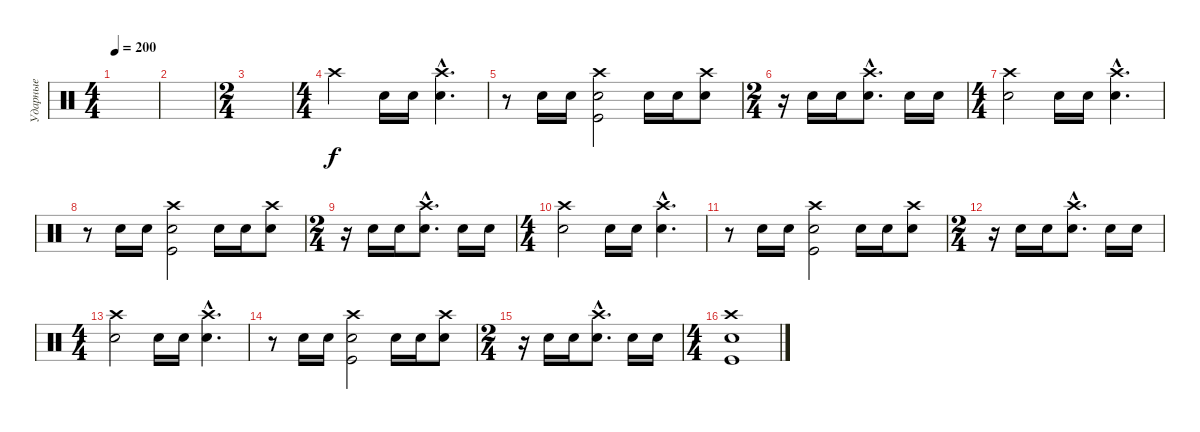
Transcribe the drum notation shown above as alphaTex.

\track ("Ударные" "Ударные") {instrument percussion}
\staff {score}
\articulation defaults
\ts (4 4)
\tempo 200
\clef neutral
\ks c
|
|
\ts (2 4)
|
\ts (4 4)
"Crash high (hit)".2 "Electric Snare (hit)".16 "Electric Snare (hit)".16 ("Crash high (hit)"{hac} "Electric Snare (hit)"{hac}).4{d} |
r.8 "Electric Snare (hit)".16 "Electric Snare (hit)".16 ("Crash high (hit)" "Electric Snare (hit)" "Kick (hit)").2 "Electric Snare (hit)".16 "Electric Snare (hit)".16 ("Crash high (hit)" "Electric Snare (hit)").8 |
\ts (2 4)
r.16 "Electric Snare (hit)".16 "Electric Snare (hit)".16 ("Crash high (hit)"{hac} "Electric Snare (hit)"{hac}).8{d} "Electric Snare (hit)".16 "Electric Snare (hit)".16 |
\ts (4 4)
("Crash high (hit)" "Electric Snare (hit)").2 "Electric Snare (hit)".16 "Electric Snare (hit)".16 ("Crash high (hit)"{hac} "Electric Snare (hit)"{hac}).4{d} |
r.8 "Electric Snare (hit)".16 "Electric Snare (hit)".16 ("Crash high (hit)" "Electric Snare (hit)" "Kick (hit)").2 "Electric Snare (hit)".16 "Electric Snare (hit)".16 ("Crash high (hit)" "Electric Snare (hit)").8 |
\ts (2 4)
r.16 "Electric Snare (hit)".16 "Electric Snare (hit)".16 ("Crash high (hit)"{hac} "Electric Snare (hit)"{hac}).8{d} "Electric Snare (hit)".16 "Electric Snare (hit)".16 |
\ts (4 4)
("Crash high (hit)" "Electric Snare (hit)").2 "Electric Snare (hit)".16 "Electric Snare (hit)".16 ("Crash high (hit)"{hac} "Electric Snare (hit)"{hac}).4{d} |
r.8 "Electric Snare (hit)".16 "Electric Snare (hit)".16 ("Crash high (hit)" "Electric Snare (hit)" "Kick (hit)").2 "Electric Snare (hit)".16 "Electric Snare (hit)".16 ("Crash high (hit)" "Electric Snare (hit)").8 |
\ts (2 4)
r.16 "Electric Snare (hit)".16 "Electric Snare (hit)".16 ("Crash high (hit)"{hac} "Electric Snare (hit)"{hac}).8{d} "Electric Snare (hit)".16 "Electric Snare (hit)".16 |
\ts (4 4)
("Crash high (hit)" "Electric Snare (hit)").2 "Electric Snare (hit)".16 "Electric Snare (hit)".16 ("Crash high (hit)"{hac} "Electric Snare (hit)"{hac}).4{d} |
r.8 "Electric Snare (hit)".16 "Electric Snare (hit)".16 ("Crash high (hit)" "Electric Snare (hit)" "Kick (hit)").2 "Electric Snare (hit)".16 "Electric Snare (hit)".16 ("Crash high (hit)" "Electric Snare (hit)").8 |
\ts (2 4)
r.16 "Electric Snare (hit)".16 "Electric Snare (hit)".16 ("Crash high (hit)"{hac} "Electric Snare (hit)"{hac}).8{d} "Electric Snare (hit)".16 "Electric Snare (hit)".16 |
\ts (4 4)
("Crash high (hit)" "Electric Snare (hit)" "Kick (hit)").1
